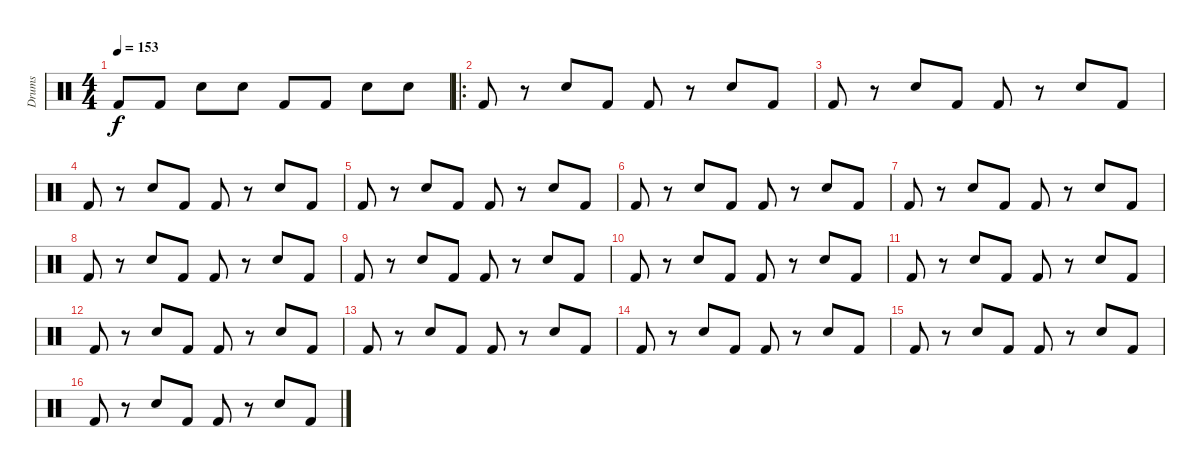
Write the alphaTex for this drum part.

\track ("Drums" "Drums") {instrument percussion}
\staff {score}
\articulation defaults
\ts (4 4)
\tempo 153
\clef neutral
\ks c "Kick (hit) 2".8{dy f} "Kick (hit) 2".8 "Snare (hit) 2".8 "Snare (hit) 2".8 "Kick (hit) 2".8 "Kick (hit) 2".8 "Snare (hit) 2".8 "Snare (hit) 2".8
|
\ro "Kick (hit) 2".8
r.8 "Snare (hit) 2".8 "Kick (hit) 2".8 "Kick (hit) 2".8 r.8 "Snare (hit) 2".8 "Kick (hit) 2".8 |
"Kick (hit) 2".8 r.8 "Snare (hit) 2".8 "Kick (hit) 2".8 "Kick (hit) 2".8 r.8 "Snare (hit) 2".8 "Kick (hit) 2".8 |
"Kick (hit) 2".8 r.8 "Snare (hit) 2".8 "Kick (hit) 2".8 "Kick (hit) 2".8 r.8 "Snare (hit) 2".8 "Kick (hit) 2".8 |
"Kick (hit) 2".8 r.8 "Snare (hit) 2".8 "Kick (hit) 2".8 "Kick (hit) 2".8 r.8 "Snare (hit) 2".8 "Kick (hit) 2".8 |
"Kick (hit) 2".8 r.8 "Snare (hit) 2".8 "Kick (hit) 2".8 "Kick (hit) 2".8 r.8 "Snare (hit) 2".8 "Kick (hit) 2".8 |
"Kick (hit) 2".8 r.8 "Snare (hit) 2".8 "Kick (hit) 2".8 "Kick (hit) 2".8 r.8 "Snare (hit) 2".8 "Kick (hit) 2".8 |
"Kick (hit) 2".8 r.8 "Snare (hit) 2".8 "Kick (hit) 2".8 "Kick (hit) 2".8 r.8 "Snare (hit) 2".8 "Kick (hit) 2".8 |
"Kick (hit) 2".8 r.8 "Snare (hit) 2".8 "Kick (hit) 2".8 "Kick (hit) 2".8 r.8 "Snare (hit) 2".8 "Kick (hit) 2".8 |
"Kick (hit) 2".8 r.8 "Snare (hit) 2".8 "Kick (hit) 2".8 "Kick (hit) 2".8 r.8 "Snare (hit) 2".8 "Kick (hit) 2".8 |
"Kick (hit) 2".8 r.8 "Snare (hit) 2".8 "Kick (hit) 2".8 "Kick (hit) 2".8 r.8 "Snare (hit) 2".8 "Kick (hit) 2".8 |
"Kick (hit) 2".8 r.8 "Snare (hit) 2".8 "Kick (hit) 2".8 "Kick (hit) 2".8 r.8 "Snare (hit) 2".8 "Kick (hit) 2".8 |
"Kick (hit) 2".8 r.8 "Snare (hit) 2".8 "Kick (hit) 2".8 "Kick (hit) 2".8 r.8 "Snare (hit) 2".8 "Kick (hit) 2".8 |
"Kick (hit) 2".8 r.8 "Snare (hit) 2".8 "Kick (hit) 2".8 "Kick (hit) 2".8 r.8 "Snare (hit) 2".8 "Kick (hit) 2".8 |
"Kick (hit) 2".8 r.8 "Snare (hit) 2".8 "Kick (hit) 2".8 "Kick (hit) 2".8 r.8 "Snare (hit) 2".8 "Kick (hit) 2".8 |
"Kick (hit) 2".8 r.8 "Snare (hit) 2".8 "Kick (hit) 2".8 "Kick (hit) 2".8 r.8 "Snare (hit) 2".8 "Kick (hit) 2".8
